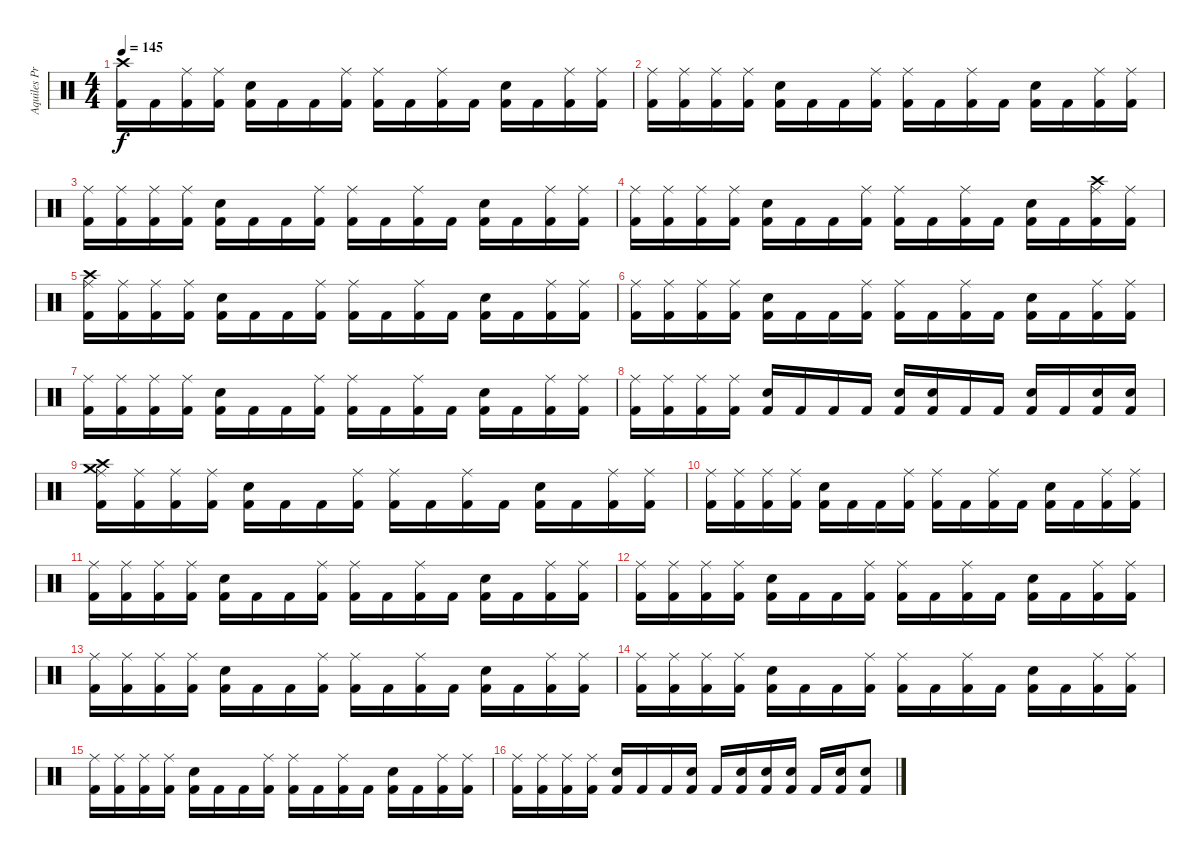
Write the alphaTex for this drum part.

\track ("Aquiles Priester" "Aquiles Pr") {instrument percussion}
\staff {score}
\articulation defaults
\ts (4 4)
\tempo 145
\clef neutral
\ks c
("Crash high (hit)" "Kick (hit) 2").16{dy f} "Kick (hit) 2".16 ("Ride (middle)" "Kick (hit) 2").16 ("Ride (middle)" "Kick (hit) 2").16 ("Electric Snare (hit)" "Kick (hit) 2").16 "Kick (hit) 2".16 "Kick (hit) 2".16 ("Ride (middle)" "Kick (hit) 2").16 ("Ride (middle)" "Kick (hit) 2").16 "Kick (hit) 2".16 ("Ride (middle)" "Kick (hit) 2").16 "Kick (hit) 2".16 ("Electric Snare (hit)" "Kick (hit) 2").16 "Kick (hit) 2".16 ("Ride (middle)" "Kick (hit) 2").16 ("Ride (middle)" "Kick (hit) 2").16 |
("Ride (middle)" "Kick (hit) 2").16 ("Ride (middle)" "Kick (hit) 2").16 ("Ride (middle)" "Kick (hit) 2").16 ("Ride (middle)" "Kick (hit) 2").16 ("Electric Snare (hit)" "Kick (hit) 2").16 "Kick (hit) 2".16 "Kick (hit) 2".16 ("Ride (middle)" "Kick (hit) 2").16 ("Ride (middle)" "Kick (hit) 2").16 "Kick (hit) 2".16 ("Ride (middle)" "Kick (hit) 2").16 "Kick (hit) 2".16 ("Electric Snare (hit)" "Kick (hit) 2").16 "Kick (hit) 2".16 ("Ride (middle)" "Kick (hit) 2").16 ("Ride (middle)" "Kick (hit) 2").16 |
("Ride (middle)" "Kick (hit) 2").16 ("Ride (middle)" "Kick (hit) 2").16 ("Ride (middle)" "Kick (hit) 2").16 ("Ride (middle)" "Kick (hit) 2").16 ("Electric Snare (hit)" "Kick (hit) 2").16 "Kick (hit) 2".16 "Kick (hit) 2".16 ("Ride (middle)" "Kick (hit) 2").16 ("Ride (middle)" "Kick (hit) 2").16 "Kick (hit) 2".16 ("Ride (middle)" "Kick (hit) 2").16 "Kick (hit) 2".16 ("Electric Snare (hit)" "Kick (hit) 2").16 "Kick (hit) 2".16 ("Ride (middle)" "Kick (hit) 2").16 ("Ride (middle)" "Kick (hit) 2").16 |
("Ride (middle)" "Kick (hit) 2").16 ("Ride (middle)" "Kick (hit) 2").16 ("Ride (middle)" "Kick (hit) 2").16 ("Ride (middle)" "Kick (hit) 2").16 ("Electric Snare (hit)" "Kick (hit) 2").16 "Kick (hit) 2".16 "Kick (hit) 2".16 ("Ride (middle)" "Kick (hit) 2").16 ("Ride (middle)" "Kick (hit) 2").16 "Kick (hit) 2".16 ("Ride (middle)" "Kick (hit) 2").16 "Kick (hit) 2".16 ("Electric Snare (hit)" "Kick (hit) 2").16 "Kick (hit) 2".16 ("Crash high (hit)" "Ride (middle)" "Kick (hit) 2").16 ("Ride (middle)" "Kick (hit) 2").16 |
("Crash high (hit)" "Ride (middle)" "Kick (hit) 2").16 ("Ride (middle)" "Kick (hit) 2").16 ("Ride (middle)" "Kick (hit) 2").16 ("Ride (middle)" "Kick (hit) 2").16 ("Electric Snare (hit)" "Kick (hit) 2").16 "Kick (hit) 2".16 "Kick (hit) 2".16 ("Ride (middle)" "Kick (hit) 2").16 ("Ride (middle)" "Kick (hit) 2").16 "Kick (hit) 2".16 ("Ride (middle)" "Kick (hit) 2").16 "Kick (hit) 2".16 ("Electric Snare (hit)" "Kick (hit) 2").16 "Kick (hit) 2".16 ("Ride (middle)" "Kick (hit) 2").16 ("Ride (middle)" "Kick (hit) 2").16 |
("Ride (middle)" "Kick (hit) 2").16 ("Ride (middle)" "Kick (hit) 2").16 ("Ride (middle)" "Kick (hit) 2").16 ("Ride (middle)" "Kick (hit) 2").16 ("Electric Snare (hit)" "Kick (hit) 2").16 "Kick (hit) 2".16 "Kick (hit) 2".16 ("Ride (middle)" "Kick (hit) 2").16 ("Ride (middle)" "Kick (hit) 2").16 "Kick (hit) 2".16 ("Ride (middle)" "Kick (hit) 2").16 "Kick (hit) 2".16 ("Electric Snare (hit)" "Kick (hit) 2").16 "Kick (hit) 2".16 ("Ride (middle)" "Kick (hit) 2").16 ("Ride (middle)" "Kick (hit) 2").16 |
("Ride (middle)" "Kick (hit) 2").16 ("Ride (middle)" "Kick (hit) 2").16 ("Ride (middle)" "Kick (hit) 2").16 ("Ride (middle)" "Kick (hit) 2").16 ("Electric Snare (hit)" "Kick (hit) 2").16 "Kick (hit) 2".16 "Kick (hit) 2".16 ("Ride (middle)" "Kick (hit) 2").16 ("Ride (middle)" "Kick (hit) 2").16 "Kick (hit) 2".16 ("Ride (middle)" "Kick (hit) 2").16 "Kick (hit) 2".16 ("Electric Snare (hit)" "Kick (hit) 2").16 "Kick (hit) 2".16 ("Ride (middle)" "Kick (hit) 2").16 ("Ride (middle)" "Kick (hit) 2").16 |
("Ride (middle)" "Kick (hit) 2").16 ("Ride (middle)" "Kick (hit) 2").16 ("Ride (middle)" "Kick (hit) 2").16 ("Ride (middle)" "Kick (hit) 2").16 ("Electric Snare (hit)" "Kick (hit) 2").16 "Kick (hit) 2".16 "Kick (hit) 2".16 "Kick (hit) 2".16 ("Electric Snare (hit)" "Kick (hit) 2").16 ("Electric Snare (hit)" "Kick (hit) 2").16 "Kick (hit) 2".16 "Kick (hit) 2".16 ("Electric Snare (hit)" "Kick (hit) 2").16 "Kick (hit) 2".16 ("Electric Snare (hit)" "Kick (hit) 2").16 ("Electric Snare (hit)" "Kick (hit) 2").16 |
("Crash high (hit)" "Crash medium (hit)" "Ride (middle)" "Kick (hit) 2").16 ("Ride (middle)" "Kick (hit) 2").16 ("Ride (middle)" "Kick (hit) 2").16 ("Ride (middle)" "Kick (hit) 2").16 ("Electric Snare (hit)" "Kick (hit) 2").16 "Kick (hit) 2".16 "Kick (hit) 2".16 ("Ride (middle)" "Kick (hit) 2").16 ("Ride (middle)" "Kick (hit) 2").16 "Kick (hit) 2".16 ("Ride (middle)" "Kick (hit) 2").16 "Kick (hit) 2".16 ("Electric Snare (hit)" "Kick (hit) 2").16 "Kick (hit) 2".16 ("Ride (middle)" "Kick (hit) 2").16 ("Ride (middle)" "Kick (hit) 2").16 |
("Ride (middle)" "Kick (hit) 2").16 ("Ride (middle)" "Kick (hit) 2").16 ("Ride (middle)" "Kick (hit) 2").16 ("Ride (middle)" "Kick (hit) 2").16 ("Electric Snare (hit)" "Kick (hit) 2").16 "Kick (hit) 2".16 "Kick (hit) 2".16 ("Ride (middle)" "Kick (hit) 2").16 ("Ride (middle)" "Kick (hit) 2").16 "Kick (hit) 2".16 ("Ride (middle)" "Kick (hit) 2").16 "Kick (hit) 2".16 ("Electric Snare (hit)" "Kick (hit) 2").16 "Kick (hit) 2".16 ("Ride (middle)" "Kick (hit) 2").16 ("Ride (middle)" "Kick (hit) 2").16 |
("Ride (middle)" "Kick (hit) 2").16 ("Ride (middle)" "Kick (hit) 2").16 ("Ride (middle)" "Kick (hit) 2").16 ("Ride (middle)" "Kick (hit) 2").16 ("Electric Snare (hit)" "Kick (hit) 2").16 "Kick (hit) 2".16 "Kick (hit) 2".16 ("Ride (middle)" "Kick (hit) 2").16 ("Ride (middle)" "Kick (hit) 2").16 "Kick (hit) 2".16 ("Ride (middle)" "Kick (hit) 2").16 "Kick (hit) 2".16 ("Electric Snare (hit)" "Kick (hit) 2").16 "Kick (hit) 2".16 ("Ride (middle)" "Kick (hit) 2").16 ("Ride (middle)" "Kick (hit) 2").16 |
("Ride (middle)" "Kick (hit) 2").16 ("Ride (middle)" "Kick (hit) 2").16 ("Ride (middle)" "Kick (hit) 2").16 ("Ride (middle)" "Kick (hit) 2").16 ("Electric Snare (hit)" "Kick (hit) 2").16 "Kick (hit) 2".16 "Kick (hit) 2".16 ("Ride (middle)" "Kick (hit) 2").16 ("Ride (middle)" "Kick (hit) 2").16 "Kick (hit) 2".16 ("Ride (middle)" "Kick (hit) 2").16 "Kick (hit) 2".16 ("Electric Snare (hit)" "Kick (hit) 2").16 "Kick (hit) 2".16 ("Ride (middle)" "Kick (hit) 2").16 ("Ride (middle)" "Kick (hit) 2").16 |
("Ride (middle)" "Kick (hit) 2").16 ("Ride (middle)" "Kick (hit) 2").16 ("Ride (middle)" "Kick (hit) 2").16 ("Ride (middle)" "Kick (hit) 2").16 ("Electric Snare (hit)" "Kick (hit) 2").16 "Kick (hit) 2".16 "Kick (hit) 2".16 ("Ride (middle)" "Kick (hit) 2").16 ("Ride (middle)" "Kick (hit) 2").16 "Kick (hit) 2".16 ("Ride (middle)" "Kick (hit) 2").16 "Kick (hit) 2".16 ("Electric Snare (hit)" "Kick (hit) 2").16 "Kick (hit) 2".16 ("Ride (middle)" "Kick (hit) 2").16 ("Ride (middle)" "Kick (hit) 2").16 |
("Ride (middle)" "Kick (hit) 2").16 ("Ride (middle)" "Kick (hit) 2").16 ("Ride (middle)" "Kick (hit) 2").16 ("Ride (middle)" "Kick (hit) 2").16 ("Electric Snare (hit)" "Kick (hit) 2").16 "Kick (hit) 2".16 "Kick (hit) 2".16 ("Ride (middle)" "Kick (hit) 2").16 ("Ride (middle)" "Kick (hit) 2").16 "Kick (hit) 2".16 ("Ride (middle)" "Kick (hit) 2").16 "Kick (hit) 2".16 ("Electric Snare (hit)" "Kick (hit) 2").16 "Kick (hit) 2".16 ("Ride (middle)" "Kick (hit) 2").16 ("Ride (middle)" "Kick (hit) 2").16 |
("Ride (middle)" "Kick (hit) 2").16 ("Ride (middle)" "Kick (hit) 2").16 ("Ride (middle)" "Kick (hit) 2").16 ("Ride (middle)" "Kick (hit) 2").16 ("Electric Snare (hit)" "Kick (hit) 2").16 "Kick (hit) 2".16 "Kick (hit) 2".16 ("Ride (middle)" "Kick (hit) 2").16 ("Ride (middle)" "Kick (hit) 2").16 "Kick (hit) 2".16 ("Ride (middle)" "Kick (hit) 2").16 "Kick (hit) 2".16 ("Electric Snare (hit)" "Kick (hit) 2").16 "Kick (hit) 2".16 ("Ride (middle)" "Kick (hit) 2").16 ("Ride (middle)" "Kick (hit) 2").16 |
("Ride (middle)" "Kick (hit) 2").16 ("Ride (middle)" "Kick (hit) 2").16 ("Ride (middle)" "Kick (hit) 2").16 ("Ride (middle)" "Kick (hit) 2").16 ("Electric Snare (hit)" "Kick (hit) 2").16 "Kick (hit) 2".16 "Kick (hit) 2".16 ("Electric Snare (hit)" "Kick (hit) 2").16 "Kick (hit) 2".16 ("Electric Snare (hit)" "Kick (hit) 2").16 ("Electric Snare (hit)" "Kick (hit) 2").16 ("Electric Snare (hit)" "Kick (hit) 2").16 "Kick (hit) 2".16 ("Electric Snare (hit)" "Kick (hit) 2").16 ("Electric Snare (hit)" "Kick (hit) 2").8
